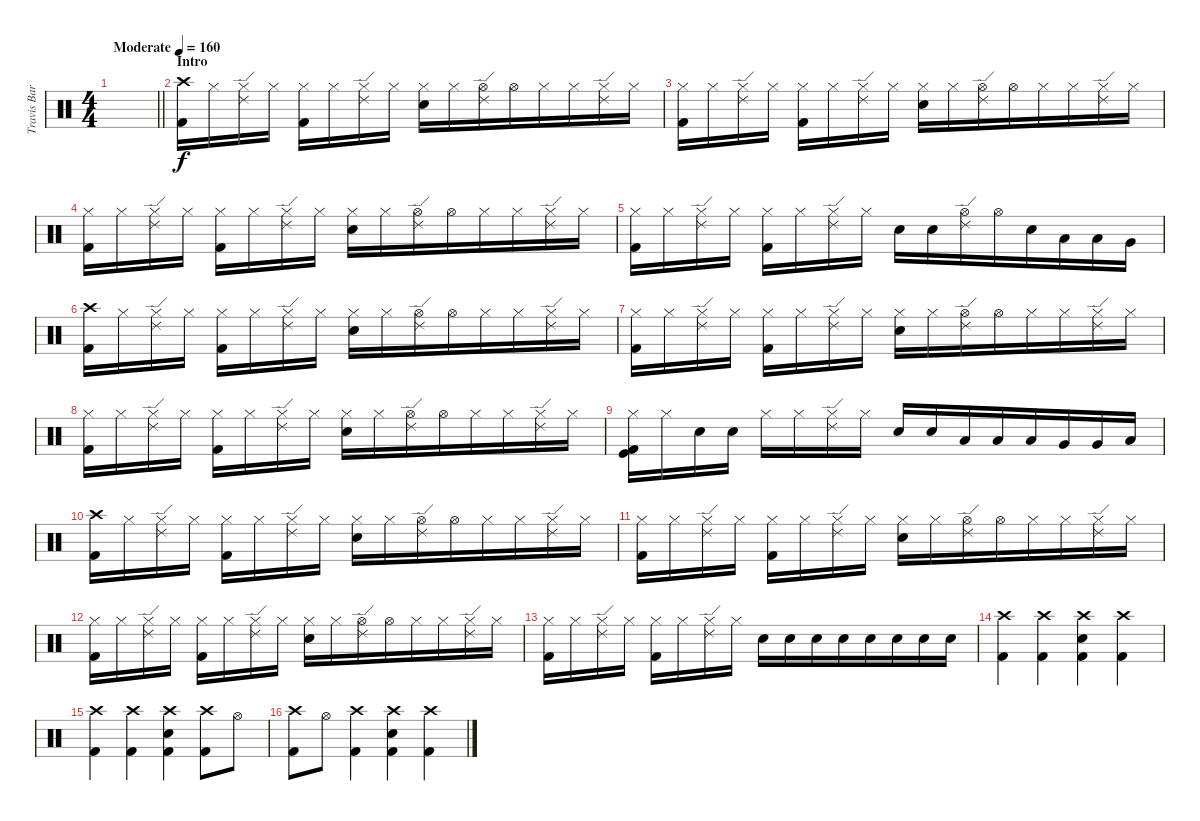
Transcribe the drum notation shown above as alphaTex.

\track ("Travis Barker - Drums" "Travis Bar") {instrument percussion}
\staff {score}
\articulation defaults
\ts (4 4)
\tempo (160 "Moderate")
\clef neutral
\barLineRight lightlight
\ks c
|
\section ("" "Intro")
("Crash high (hit)" "Kick (hit) 2").16 "Hi-Hat (closed)".16 ("Hi-Hat (closed)" "Ride (edge) 2").16 "Hi-Hat (closed)".16 ("Hi-Hat (closed)" "Kick (hit) 2").16 "Hi-Hat (closed)".16 ("Hi-Hat (closed)" "Ride (edge) 2").16{beam merge} "Hi-Hat (closed)".16 ("Hi-Hat (closed)" "Electric Snare (hit)").16{beam merge} "Hi-Hat (closed)".16{beam merge} ("Hi-Hat (open)" "Ride (edge) 2").16 "Hi-Hat (open)".16{beam merge} "Hi-Hat (closed)".16{beam merge} "Hi-Hat (closed)".16{beam merge} ("Hi-Hat (closed)" "Ride (edge) 2").16 "Hi-Hat (closed)".16 |
("Hi-Hat (closed)" "Kick (hit) 2").16 "Hi-Hat (closed)".16 ("Hi-Hat (closed)" "Ride (edge) 2").16 "Hi-Hat (closed)".16 ("Hi-Hat (closed)" "Kick (hit) 2").16 "Hi-Hat (closed)".16 ("Hi-Hat (closed)" "Ride (edge) 2").16{beam merge} "Hi-Hat (closed)".16 ("Hi-Hat (closed)" "Electric Snare (hit)").16{beam merge} "Hi-Hat (closed)".16{beam merge} ("Hi-Hat (open)" "Ride (edge) 2").16 "Hi-Hat (open)".16{beam merge} "Hi-Hat (closed)".16{beam merge} "Hi-Hat (closed)".16{beam merge} ("Hi-Hat (closed)" "Ride (edge) 2").16 "Hi-Hat (closed)".16 |
("Hi-Hat (closed)" "Kick (hit) 2").16 "Hi-Hat (closed)".16 ("Hi-Hat (closed)" "Ride (edge) 2").16 "Hi-Hat (closed)".16 ("Hi-Hat (closed)" "Kick (hit) 2").16 "Hi-Hat (closed)".16 ("Hi-Hat (closed)" "Ride (edge) 2").16{beam merge} "Hi-Hat (closed)".16 ("Hi-Hat (closed)" "Electric Snare (hit)").16{beam merge} "Hi-Hat (closed)".16{beam merge} ("Hi-Hat (open)" "Ride (edge) 2").16 "Hi-Hat (open)".16{beam merge} "Hi-Hat (closed)".16{beam merge} "Hi-Hat (closed)".16{beam merge} ("Hi-Hat (closed)" "Ride (edge) 2").16 "Hi-Hat (closed)".16 |
("Hi-Hat (closed)" "Kick (hit) 2").16 "Hi-Hat (closed)".16 ("Hi-Hat (closed)" "Ride (edge) 2").16 "Hi-Hat (closed)".16 ("Hi-Hat (closed)" "Kick (hit) 2").16 "Hi-Hat (closed)".16 ("Hi-Hat (closed)" "Ride (edge) 2").16{beam merge} "Hi-Hat (closed)".16 "Electric Snare (hit)".16{beam merge} "Electric Snare (hit)".16{beam merge} ("Hi-Hat (open)" "Ride (edge) 2").16 "Hi-Hat (open)".16{beam merge} "Electric Snare (hit)".16{beam merge} "Low Tom (hit)".16{beam merge} "Low Tom (hit)".16 "Very Low Tom (hit)".16 |
("Crash high (hit)" "Kick (hit) 2").16 "Hi-Hat (closed)".16 ("Hi-Hat (closed)" "Ride (edge) 2").16 "Hi-Hat (closed)".16 ("Hi-Hat (closed)" "Kick (hit) 2").16 "Hi-Hat (closed)".16 ("Hi-Hat (closed)" "Ride (edge) 2").16{beam merge} "Hi-Hat (closed)".16 ("Hi-Hat (closed)" "Electric Snare (hit)").16{beam merge} "Hi-Hat (closed)".16{beam merge} ("Hi-Hat (open)" "Ride (edge) 2").16 "Hi-Hat (open)".16{beam merge} "Hi-Hat (closed)".16{beam merge} "Hi-Hat (closed)".16{beam merge} ("Hi-Hat (closed)" "Ride (edge) 2").16 "Hi-Hat (closed)".16 |
("Hi-Hat (closed)" "Kick (hit) 2").16 "Hi-Hat (closed)".16 ("Hi-Hat (closed)" "Ride (edge) 2").16 "Hi-Hat (closed)".16 ("Hi-Hat (closed)" "Kick (hit) 2").16 "Hi-Hat (closed)".16 ("Hi-Hat (closed)" "Ride (edge) 2").16{beam merge} "Hi-Hat (closed)".16 ("Hi-Hat (closed)" "Electric Snare (hit)").16{beam merge} "Hi-Hat (closed)".16{beam merge} ("Hi-Hat (open)" "Ride (edge) 2").16 "Hi-Hat (open)".16{beam merge} "Hi-Hat (closed)".16{beam merge} "Hi-Hat (closed)".16{beam merge} ("Hi-Hat (closed)" "Ride (edge) 2").16 "Hi-Hat (closed)".16 |
("Hi-Hat (closed)" "Kick (hit) 2").16 "Hi-Hat (closed)".16 ("Hi-Hat (closed)" "Ride (edge) 2").16 "Hi-Hat (closed)".16 ("Hi-Hat (closed)" "Kick (hit) 2").16 "Hi-Hat (closed)".16 ("Hi-Hat (closed)" "Ride (edge) 2").16{beam merge} "Hi-Hat (closed)".16 ("Hi-Hat (closed)" "Electric Snare (hit)").16{beam merge} "Hi-Hat (closed)".16{beam merge} ("Hi-Hat (open)" "Ride (edge) 2").16 "Hi-Hat (open)".16{beam merge} "Hi-Hat (closed)".16{beam merge} "Hi-Hat (closed)".16{beam merge} ("Hi-Hat (closed)" "Ride (edge) 2").16 "Hi-Hat (closed)".16 |
("Hi-Hat (closed)" "Kick (hit)" "Kick (hit) 2").16 "Hi-Hat (closed)".16 "Electric Snare (hit)".16 "Electric Snare (hit)".16 "Hi-Hat (closed)".16 "Hi-Hat (closed)".16 ("Hi-Hat (closed)" "Ride (edge) 2").16{beam merge} "Hi-Hat (closed)".16 "Electric Snare (hit)".16{beam merge} "Electric Snare (hit)".16{beam merge} "Low Tom (hit)".16 "Low Tom (hit)".16{beam merge} "Low Tom (hit)".16{beam merge} "Very Low Tom (hit)".16{beam merge} "Very Low Tom (hit)".16 "Low Floor Tom (hit)".16 |
("Crash high (hit)" "Kick (hit) 2").16 "Hi-Hat (closed)".16 ("Hi-Hat (closed)" "Ride (edge) 2").16 "Hi-Hat (closed)".16 ("Hi-Hat (closed)" "Kick (hit) 2").16 "Hi-Hat (closed)".16 ("Hi-Hat (closed)" "Ride (edge) 2").16{beam merge} "Hi-Hat (closed)".16 ("Hi-Hat (closed)" "Electric Snare (hit)").16{beam merge} "Hi-Hat (closed)".16{beam merge} ("Hi-Hat (open)" "Ride (edge) 2").16 "Hi-Hat (open)".16{beam merge} "Hi-Hat (closed)".16{beam merge} "Hi-Hat (closed)".16{beam merge} ("Hi-Hat (closed)" "Ride (edge) 2").16 "Hi-Hat (closed)".16 |
("Hi-Hat (closed)" "Kick (hit) 2").16 "Hi-Hat (closed)".16 ("Hi-Hat (closed)" "Ride (edge) 2").16 "Hi-Hat (closed)".16 ("Hi-Hat (closed)" "Kick (hit) 2").16 "Hi-Hat (closed)".16 ("Hi-Hat (closed)" "Ride (edge) 2").16{beam merge} "Hi-Hat (closed)".16 ("Hi-Hat (closed)" "Electric Snare (hit)").16{beam merge} "Hi-Hat (closed)".16{beam merge} ("Hi-Hat (open)" "Ride (edge) 2").16 "Hi-Hat (open)".16{beam merge} "Hi-Hat (closed)".16{beam merge} "Hi-Hat (closed)".16{beam merge} ("Hi-Hat (closed)" "Ride (edge) 2").16 "Hi-Hat (closed)".16 |
("Hi-Hat (closed)" "Kick (hit) 2").16 "Hi-Hat (closed)".16 ("Hi-Hat (closed)" "Ride (edge) 2").16 "Hi-Hat (closed)".16 ("Hi-Hat (closed)" "Kick (hit) 2").16 "Hi-Hat (closed)".16 ("Hi-Hat (closed)" "Ride (edge) 2").16{beam merge} "Hi-Hat (closed)".16 ("Hi-Hat (closed)" "Electric Snare (hit)").16{beam merge} "Hi-Hat (closed)".16{beam merge} ("Hi-Hat (open)" "Ride (edge) 2").16 "Hi-Hat (open)".16{beam merge} "Hi-Hat (closed)".16{beam merge} "Hi-Hat (closed)".16{beam merge} ("Hi-Hat (closed)" "Ride (edge) 2").16 "Hi-Hat (closed)".16 |
("Hi-Hat (closed)" "Kick (hit) 2").16 "Hi-Hat (closed)".16 ("Hi-Hat (closed)" "Ride (edge) 2").16 "Hi-Hat (closed)".16 ("Hi-Hat (closed)" "Kick (hit) 2").16 "Hi-Hat (closed)".16 ("Hi-Hat (closed)" "Ride (edge) 2").16{beam merge} "Hi-Hat (closed)".16 "Electric Snare (hit)".16{beam merge} "Electric Snare (hit)".16{beam merge} "Electric Snare (hit)".16 "Electric Snare (hit)".16{beam merge} "Electric Snare (hit)".16{beam merge} "Electric Snare (hit)".16{beam merge} "Electric Snare (hit)".16 "Electric Snare (hit)".16 |
("Crash high (hit)" "Kick (hit) 2").4{beam merge} ("Crash high (hit)" "Kick (hit) 2").4 ("Crash high (hit)" "Electric Snare (hit)" "Kick (hit) 2").4 ("Crash high (hit)" "Kick (hit) 2").4 |
("Crash high (hit)" "Kick (hit) 2").4{beam merge} ("Crash high (hit)" "Kick (hit) 2").4 ("Crash high (hit)" "Electric Snare (hit)" "Kick (hit) 2").4 ("Crash high (hit)" "Kick (hit) 2").8 "Hi-Hat (open)".8 |
("Crash high (hit)" "Kick (hit) 2").8{beam merge} "Hi-Hat (open)".8 ("Crash high (hit)" "Kick (hit) 2").4 ("Crash high (hit)" "Electric Snare (hit)" "Kick (hit) 2").4 ("Crash high (hit)" "Kick (hit) 2").4
